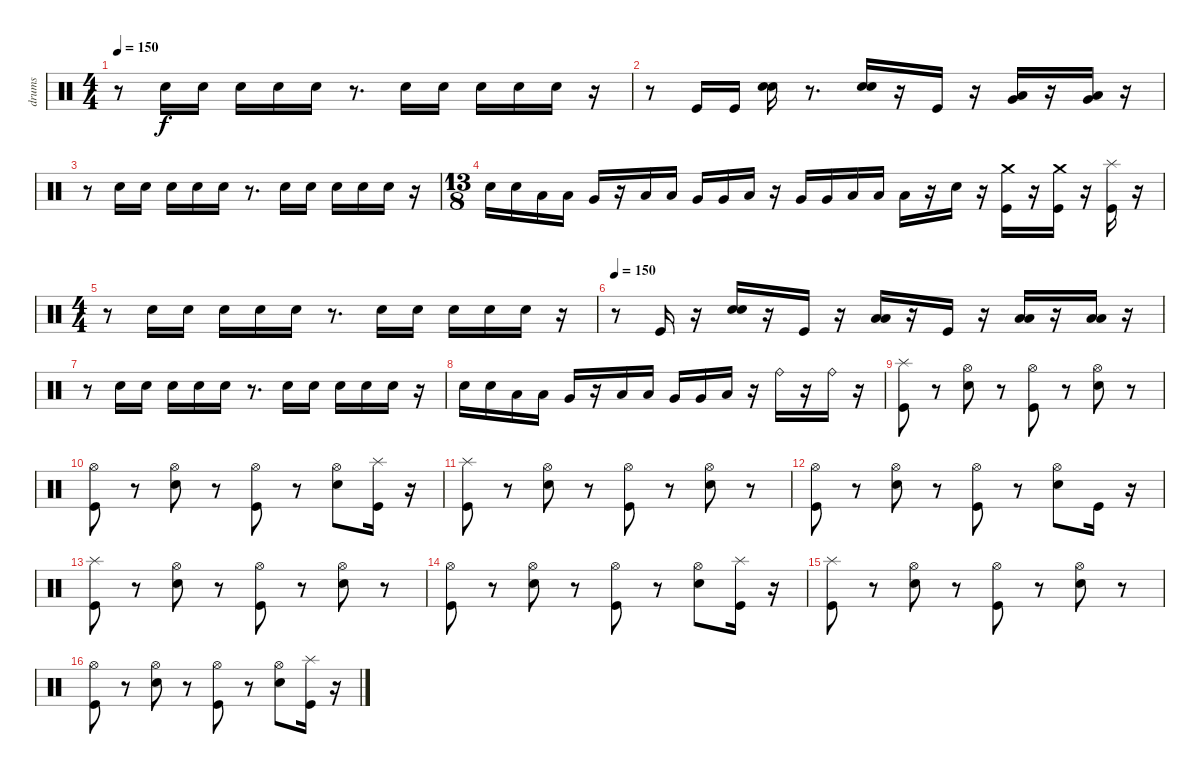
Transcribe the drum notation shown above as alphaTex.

\track ("drums" "drums") {instrument percussion}
\staff {score}
\articulation defaults
\ts (4 4)
\tempo 150
\clef neutral
\ks c
r.8{dy f} "Electric Snare (hit)".16 "Electric Snare (hit)".16 "Electric Snare (hit)".16 "Electric Snare (hit)".16 "Electric Snare (hit)".16 r.8{d} "Electric Snare (hit)".16 "Electric Snare (hit)".16 "Electric Snare (hit)".16 "Electric Snare (hit)".16 "Electric Snare (hit)".16 r.16 |
r.8 "Kick (hit)".16 "Kick (hit)".16 ("Electric Snare (hit)" "Electric Snare (hit)").16 r.8{d} ("Snare (hit) 2" "Electric Snare (hit)").16 r.16 "Kick (hit)".16 r.16 ("Low Floor Tom (hit)" "Very Low Tom (hit)").16 r.16 ("Very Low Tom (hit)" "Low Floor Tom (hit)").16 r.16 |
r.8 "Electric Snare (hit)".16 "Electric Snare (hit)".16 "Electric Snare (hit)".16 "Electric Snare (hit)".16 "Electric Snare (hit)".16 r.8{d} "Electric Snare (hit)".16 "Electric Snare (hit)".16 "Electric Snare (hit)".16 "Electric Snare (hit)".16 "Electric Snare (hit)".16 r.16 |
\ts (13 8)
"Electric Snare (hit)".16 "Electric Snare (hit)".16 "Low Tom (hit)".16 "Low Tom (hit)".16 "Very Low Tom (hit)".16 r.16 "Low Tom (hit)".16 "Low Tom (hit)".16 "Very Low Tom (hit)".16 "Very Low Tom (hit)".16 "Low Floor Tom (hit)".16 r.16 "Very Low Tom (hit)".16 "Very Low Tom (hit)".16 "Low Floor Tom (hit)".16 "Low Floor Tom (hit)".16 "Low Floor Tom (hit)".16 r.16 "Electric Snare (hit)".16 r.16 ("Crash medium (hit)" "Kick (hit)").16 r.16 ("Crash medium (hit)" "Kick (hit)").16 r.16 ("Splash (hit)" "Kick (hit)").16 r.16 |
\ts (4 4)
r.8 "Electric Snare (hit)".16 "Electric Snare (hit)".16 "Electric Snare (hit)".16 "Electric Snare (hit)".16 "Electric Snare (hit)".16 r.8{d} "Electric Snare (hit)".16 "Electric Snare (hit)".16 "Electric Snare (hit)".16 "Electric Snare (hit)".16 "Electric Snare (hit)".16 r.16 |
\tempo 150
r.8 "Kick (hit)".16 r.16 ("Electric Snare (hit)" "Electric Snare (hit)").16 r.16 "Kick (hit)".16 r.16 ("Low Tom (hit)" "Low Tom (hit)").16 r.16 "Kick (hit)".16 r.16 ("Low Floor Tom (hit)" "Low Floor Tom (hit)").16 r.16 ("Low Floor Tom (hit)" "Low Floor Tom (hit)").16 r.16 |
r.8 "Electric Snare (hit)".16 "Electric Snare (hit)".16 "Electric Snare (hit)".16 "Electric Snare (hit)".16 "Electric Snare (hit)".16 r.8{d} "Electric Snare (hit)".16 "Electric Snare (hit)".16 "Electric Snare (hit)".16 "Electric Snare (hit)".16 "Electric Snare (hit)".16 r.16 |
"Electric Snare (hit)".16 "Electric Snare (hit)".16 "Low Tom (hit)".16 "Low Tom (hit)".16 "Very Low Tom (hit)".16 r.16 "Low Tom (hit)".16 "Low Tom (hit)".16 "Very Low Tom (hit)".16 "Very Low Tom (hit)".16 "Low Floor Tom (hit)".16 r.16 "Ride (bell)".16 r.16 "Ride (bell)".16 r.16 |
("Splash (hit)" "Kick (hit)").8 r.8 ("Hi-Hat (open)" "Electric Snare (hit)").8 r.8 ("Hi-Hat (open)" "Kick (hit)").8 r.8 ("Hi-Hat (open)" "Electric Snare (hit)").8 r.8 |
("Hi-Hat (open)" "Kick (hit)").8 r.8 ("Hi-Hat (open)" "Electric Snare (hit)").8 r.8 ("Hi-Hat (open)" "Kick (hit)").8 r.8 ("Hi-Hat (open)" "Electric Snare (hit)").8 ("Splash (hit)" "Kick (hit)").16 r.16 |
("Splash (hit)" "Kick (hit)").8 r.8 ("Hi-Hat (open)" "Electric Snare (hit)").8 r.8 ("Hi-Hat (open)" "Kick (hit)").8 r.8 ("Hi-Hat (open)" "Electric Snare (hit)").8 r.8 |
("Hi-Hat (open)" "Kick (hit)").8 r.8 ("Hi-Hat (open)" "Electric Snare (hit)").8 r.8 ("Hi-Hat (open)" "Kick (hit)").8 r.8 ("Hi-Hat (open)" "Electric Snare (hit)").8 "Kick (hit)".16 r.16 |
("Splash (hit)" "Kick (hit)").8 r.8 ("Hi-Hat (open)" "Electric Snare (hit)").8 r.8 ("Hi-Hat (open)" "Kick (hit)").8 r.8 ("Hi-Hat (open)" "Electric Snare (hit)").8 r.8 |
("Hi-Hat (open)" "Kick (hit)").8 r.8 ("Hi-Hat (open)" "Electric Snare (hit)").8 r.8 ("Hi-Hat (open)" "Kick (hit)").8 r.8 ("Hi-Hat (open)" "Electric Snare (hit)").8 ("Splash (hit)" "Kick (hit)").16 r.16 |
("Splash (hit)" "Kick (hit)").8 r.8 ("Hi-Hat (open)" "Electric Snare (hit)").8 r.8 ("Hi-Hat (open)" "Kick (hit)").8 r.8 ("Hi-Hat (open)" "Electric Snare (hit)").8 r.8 |
("Hi-Hat (open)" "Kick (hit)").8 r.8 ("Hi-Hat (open)" "Electric Snare (hit)").8 r.8 ("Hi-Hat (open)" "Kick (hit)").8 r.8 ("Hi-Hat (open)" "Electric Snare (hit)").8 ("Splash (hit)" "Kick (hit)").16 r.16
